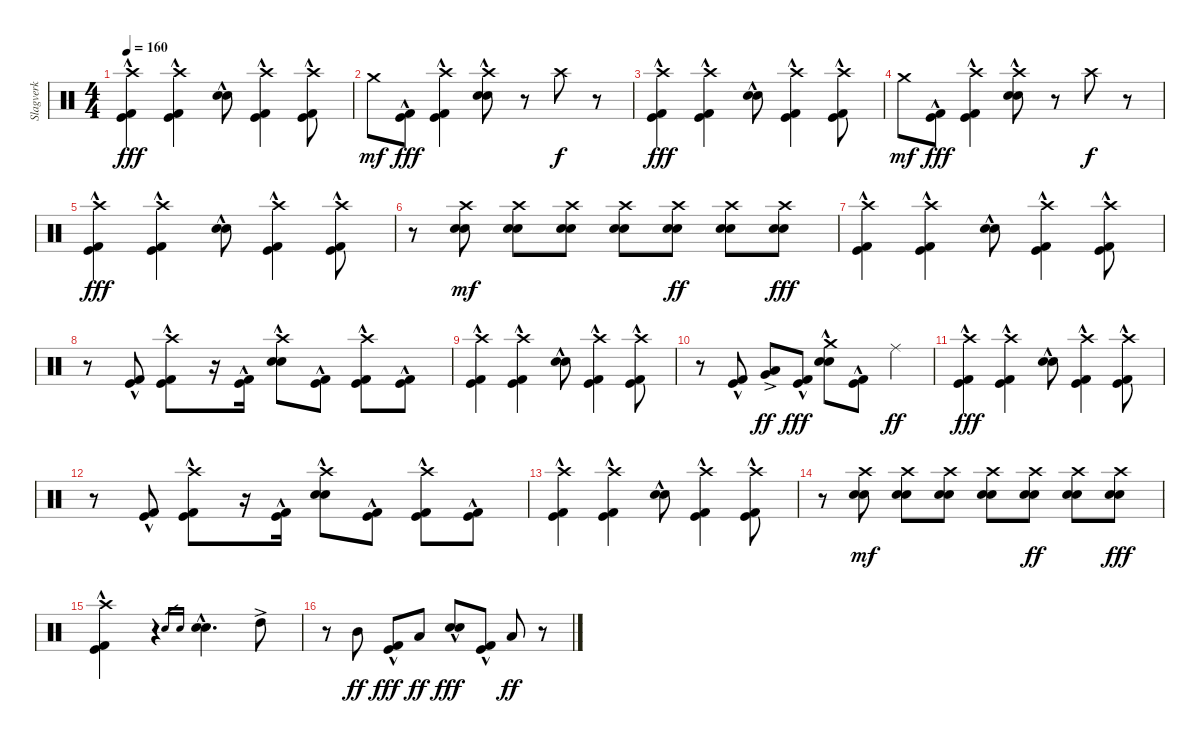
\track ("Slagverk" "Slagverk") {instrument percussion}
\staff {score}
\articulation defaults
\ts (4 4)
\tempo 160
\clef neutral
\ks c
("Crash high (hit)" "Kick (hit)"{hac} "Kick (hit) 2"{hac}).4{dy fff} ("Crash high (hit)" "Kick (hit)"{hac} "Kick (hit) 2"{hac}).4 ("Electric Snare (hit)"{hac} "Snare (hit) 2"{hac}).8 ("Crash high (hit)" "Kick (hit)"{hac} "Kick (hit) 2"{hac}).4 ("Crash high (hit)" "Kick (hit)"{hac} "Kick (hit) 2"{hac}).8 |
"Crash medium (hit)".8{dy mf} ("Kick (hit)"{hac} "Kick (hit) 2"{hac}).8{dy fff} ("Crash high (hit)" "Kick (hit)"{hac} "Kick (hit) 2"{hac}).4 ("Crash high (hit)" "Electric Snare (hit)"{hac} "Snare (hit) 2"{hac}).8 r.8 "Crash high (hit)".8{dy f} r.8 |
("Crash high (hit)" "Kick (hit)"{hac} "Kick (hit) 2"{hac}).4{dy fff} ("Crash high (hit)" "Kick (hit)"{hac} "Kick (hit) 2"{hac}).4 ("Electric Snare (hit)"{hac} "Snare (hit) 2"{hac}).8 ("Crash high (hit)" "Kick (hit)"{hac} "Kick (hit) 2"{hac}).4 ("Crash high (hit)" "Kick (hit)"{hac} "Kick (hit) 2"{hac}).8 |
"Crash medium (hit)".8{dy mf} ("Kick (hit)"{hac} "Kick (hit) 2"{hac}).8{dy fff} ("Crash high (hit)" "Kick (hit)"{hac} "Kick (hit) 2"{hac}).4 ("Crash high (hit)" "Electric Snare (hit)"{hac} "Snare (hit) 2"{hac}).8 r.8 "Crash high (hit)".8{dy f} r.8 |
("Crash high (hit)" "Kick (hit)"{hac} "Kick (hit) 2"{hac}).4{dy fff} ("Crash high (hit)" "Kick (hit)"{hac} "Kick (hit) 2"{hac}).4 ("Electric Snare (hit)"{hac} "Snare (hit) 2"{hac}).8 ("Crash high (hit)" "Kick (hit)"{hac} "Kick (hit) 2"{hac}).4 ("Crash high (hit)" "Kick (hit)"{hac} "Kick (hit) 2"{hac}).8 |
r.8 ("Crash high (hit)" "Electric Snare (hit)" "Snare (hit) 2").8{dy mf} ("Crash high (hit)" "Electric Snare (hit)" "Snare (hit) 2").8 ("Crash high (hit)" "Electric Snare (hit)" "Snare (hit) 2").8 ("Crash high (hit)" "Electric Snare (hit)" "Snare (hit) 2").8 ("Crash high (hit)" "Electric Snare (hit)" "Snare (hit) 2").8{dy ff} ("Crash high (hit)" "Electric Snare (hit)" "Snare (hit) 2").8 ("Crash high (hit)" "Electric Snare (hit)" "Snare (hit) 2").8{dy fff} |
("Crash high (hit)" "Kick (hit)"{hac} "Kick (hit) 2"{hac}).4 ("Crash high (hit)" "Kick (hit)"{hac} "Kick (hit) 2"{hac}).4 ("Electric Snare (hit)"{hac} "Snare (hit) 2"{hac}).8 ("Crash high (hit)" "Kick (hit)"{hac} "Kick (hit) 2"{hac}).4 ("Crash high (hit)" "Kick (hit)"{hac} "Kick (hit) 2"{hac}).8 |
r.8 ("Kick (hit)"{hac} "Kick (hit) 2"{hac}).8 ("Crash high (hit)" "Kick (hit)"{hac} "Kick (hit) 2"{hac}).8 r.16 ("Kick (hit)"{hac} "Kick (hit) 2"{hac}).16 ("Crash high (hit)" "Electric Snare (hit)"{hac} "Snare (hit) 2"{hac}).8 ("Kick (hit)"{hac} "Kick (hit) 2"{hac}).8 ("Crash high (hit)" "Kick (hit)"{hac} "Kick (hit) 2"{hac}).8 ("Kick (hit)"{hac} "Kick (hit) 2"{hac}).8 |
("Crash high (hit)" "Kick (hit)"{hac} "Kick (hit) 2"{hac}).4 ("Crash high (hit)" "Kick (hit)"{hac} "Kick (hit) 2"{hac}).4 ("Electric Snare (hit)"{hac} "Snare (hit) 2"{hac}).8 ("Crash high (hit)" "Kick (hit)"{hac} "Kick (hit) 2"{hac}).4 ("Crash high (hit)" "Kick (hit)"{hac} "Kick (hit) 2"{hac}).8 |
r.8 ("Kick (hit)"{hac} "Kick (hit) 2"{hac}).8 ("Low Tom (hit)"{ac} "Very Low Tom (hit)"{ac}).8{dy ff} ("Kick (hit)"{hac} "Kick (hit) 2"{hac}).8{dy fff} ("Crash medium (hit)" "Electric Snare (hit)"{hac} "Snare (hit) 2"{hac}).8 ("Kick (hit)"{hac} "Kick (hit) 2"{hac}).8 "Ride (middle)".4{dy ff} |
("Crash high (hit)" "Kick (hit)"{hac} "Kick (hit) 2"{hac}).4{dy fff} ("Crash high (hit)" "Kick (hit)"{hac} "Kick (hit) 2"{hac}).4 ("Electric Snare (hit)"{hac} "Snare (hit) 2"{hac}).8 ("Crash high (hit)" "Kick (hit)"{hac} "Kick (hit) 2"{hac}).4 ("Crash high (hit)" "Kick (hit)"{hac} "Kick (hit) 2"{hac}).8 |
r.8 ("Kick (hit)"{hac} "Kick (hit) 2"{hac}).8 ("Crash high (hit)" "Kick (hit)"{hac} "Kick (hit) 2"{hac}).8 r.16 ("Kick (hit)"{hac} "Kick (hit) 2"{hac}).16 ("Crash high (hit)" "Electric Snare (hit)"{hac} "Snare (hit) 2"{hac}).8 ("Kick (hit)"{hac} "Kick (hit) 2"{hac}).8 ("Crash high (hit)" "Kick (hit)"{hac} "Kick (hit) 2"{hac}).8 ("Kick (hit)"{hac} "Kick (hit) 2"{hac}).8 |
("Crash high (hit)" "Kick (hit)"{hac} "Kick (hit) 2"{hac}).4 ("Crash high (hit)" "Kick (hit)"{hac} "Kick (hit) 2"{hac}).4 ("Electric Snare (hit)"{hac} "Snare (hit) 2"{hac}).8 ("Crash high (hit)" "Kick (hit)"{hac} "Kick (hit) 2"{hac}).4 ("Crash high (hit)" "Kick (hit)"{hac} "Kick (hit) 2"{hac}).8 |
r.8 ("Crash high (hit)" "Electric Snare (hit)" "Snare (hit) 2").8{dy mf} ("Crash high (hit)" "Electric Snare (hit)" "Snare (hit) 2").8 ("Crash high (hit)" "Electric Snare (hit)" "Snare (hit) 2").8 ("Crash high (hit)" "Electric Snare (hit)" "Snare (hit) 2").8 ("Crash high (hit)" "Electric Snare (hit)" "Snare (hit) 2").8{dy ff} ("Crash high (hit)" "Electric Snare (hit)" "Snare (hit) 2").8 ("Crash high (hit)" "Electric Snare (hit)" "Snare (hit) 2").8{dy fff} |
("Crash high (hit)" "Kick (hit)"{hac} "Kick (hit) 2"{hac}).4 r.4 "Electric Snare (hit)".16{gr} "Snare (hit) 2".16{gr} ("Electric Snare (hit)"{hac} "Snare (hit) 2"{hac}).4{d} "High Tom (hit)"{ac}.8 |
r.8 "Mid Tom (hit)".8{dy ff} ("Kick (hit)"{hac} "Kick (hit) 2"{hac}).8{dy fff} "Low Tom (hit)".8{dy ff} ("Electric Snare (hit)"{hac} "Snare (hit) 2"{hac}).8{dy fff} ("Kick (hit)"{hac} "Kick (hit) 2"{hac}).8 "Low Tom (hit)".8{dy ff} r.8
